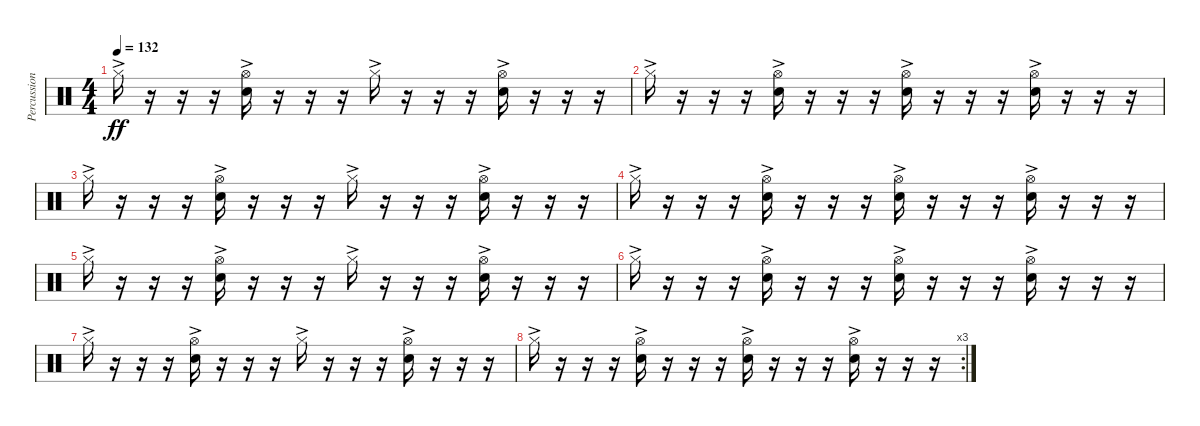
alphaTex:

\track ("Percussion" "Percussion") {instrument percussion}
\staff {score}
\articulation defaults
\ts (4 4)
\tempo 132
\clef neutral
\ks c "Hi-Hat (closed)"{ac}.16{dy ff}
r.16 r.16 r.16 ("Hi-Hat (open)"{ac} "Snare (hit) 2"{ac}).16 r.16 r.16 r.16 "Hi-Hat (closed)"{ac}.16 r.16 r.16 r.16 ("Hi-Hat (open)"{ac} "Snare (hit) 2"{ac}).16 r.16 r.16 r.16 |
"Hi-Hat (closed)"{ac}.16 r.16 r.16 r.16 ("Hi-Hat (open)"{ac} "Snare (hit) 2"{ac}).16 r.16 r.16 r.16 ("Hi-Hat (open)"{ac} "Snare (hit) 2"{ac}).16 r.16 r.16 r.16 ("Hi-Hat (open)"{ac} "Snare (hit) 2"{ac}).16 r.16 r.16 r.16 |
"Hi-Hat (closed)"{ac}.16 r.16 r.16 r.16 ("Hi-Hat (open)"{ac} "Snare (hit) 2"{ac}).16 r.16 r.16 r.16 "Hi-Hat (closed)"{ac}.16 r.16 r.16 r.16 ("Hi-Hat (open)"{ac} "Snare (hit) 2"{ac}).16 r.16 r.16 r.16 |
"Hi-Hat (closed)"{ac}.16 r.16 r.16 r.16 ("Hi-Hat (open)"{ac} "Snare (hit) 2"{ac}).16 r.16 r.16 r.16 ("Hi-Hat (open)"{ac} "Snare (hit) 2"{ac}).16 r.16 r.16 r.16 ("Hi-Hat (open)"{ac} "Snare (hit) 2"{ac}).16 r.16 r.16 r.16 |
"Hi-Hat (closed)"{ac}.16 r.16 r.16 r.16 ("Hi-Hat (open)"{ac} "Snare (hit) 2"{ac}).16 r.16 r.16 r.16 "Hi-Hat (closed)"{ac}.16 r.16 r.16 r.16 ("Hi-Hat (open)"{ac} "Snare (hit) 2"{ac}).16 r.16 r.16 r.16 |
"Hi-Hat (closed)"{ac}.16 r.16 r.16 r.16 ("Hi-Hat (open)"{ac} "Snare (hit) 2"{ac}).16 r.16 r.16 r.16 ("Hi-Hat (open)"{ac} "Snare (hit) 2"{ac}).16 r.16 r.16 r.16 ("Hi-Hat (open)"{ac} "Snare (hit) 2"{ac}).16 r.16 r.16 r.16 |
"Hi-Hat (closed)"{ac}.16 r.16 r.16 r.16 ("Hi-Hat (open)"{ac} "Snare (hit) 2"{ac}).16 r.16 r.16 r.16 "Hi-Hat (closed)"{ac}.16 r.16 r.16 r.16 ("Hi-Hat (open)"{ac} "Snare (hit) 2"{ac}).16 r.16 r.16 r.16 |
\rc 3 "Hi-Hat (closed)"{ac}.16
r.16 r.16 r.16 ("Hi-Hat (open)"{ac} "Snare (hit) 2"{ac}).16 r.16 r.16 r.16 ("Hi-Hat (open)"{ac} "Snare (hit) 2"{ac}).16 r.16 r.16 r.16 ("Hi-Hat (open)"{ac} "Snare (hit) 2"{ac}).16 r.16 r.16 r.16
